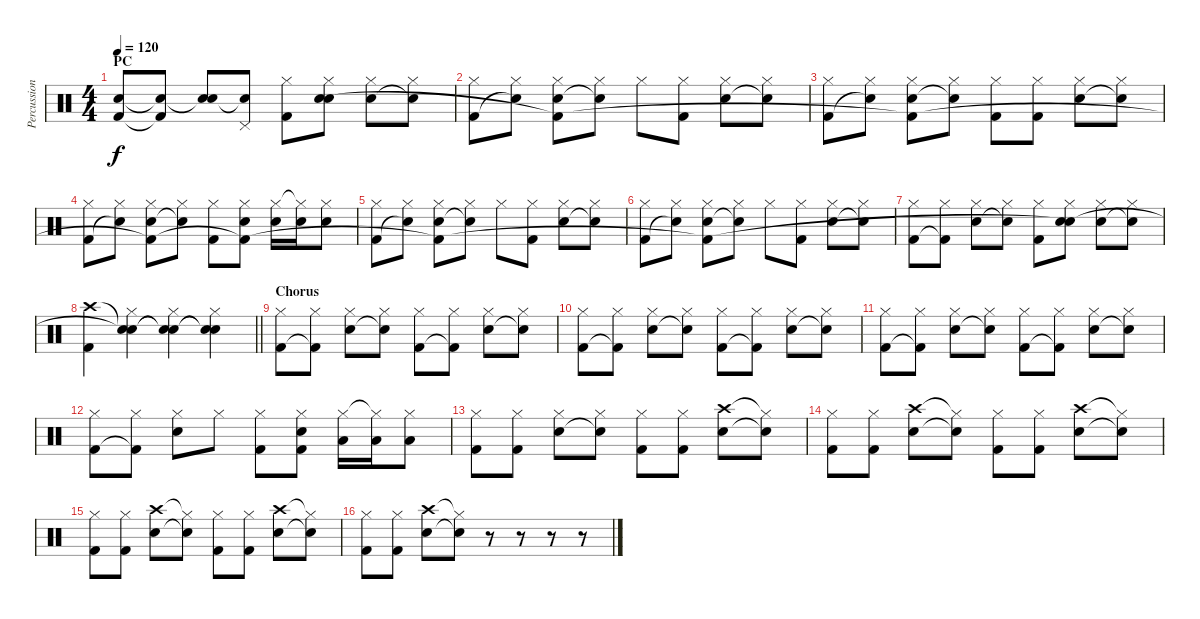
\track ("Percussion" "Percussion") {instrument percussion}
\staff {score}
\articulation defaults
\ts (4 4)
\section ("" "PC")
\tempo 120
\clef neutral
\ks c
("Snare (hit)"{t} "Kick (hit) 2").8{dy f} ("Snare (hit)"{t} "Kick (hit) 2"{t}).8 ("Snare (hit)"{t} "Electric Snare (hit)").8 ("Pedal Hi-Hat (hit)" "Electric Snare (hit)"{t}).8 ("Hi-Hat (closed)" "Kick (hit) 2").8 ("Hi-Hat (closed)" "Electric Snare (hit)" "Snare (hit)"{t}).8 ("Hi-Hat (closed)" "Electric Snare (hit)").8 ("Hi-Hat (closed)" "Electric Snare (hit)"{t}).8 |
("Hi-Hat (closed)" "Kick (hit) 2").8 ("Hi-Hat (closed)" "Snare (hit)"{t}).8 ("Hi-Hat (closed)" "Electric Snare (hit)" "Kick (hit) 2"{t}).8 ("Hi-Hat (closed)" "Electric Snare (hit)"{t}).8 "Hi-Hat (closed)".8 ("Hi-Hat (closed)" "Kick (hit) 2").8 ("Hi-Hat (closed)" "Electric Snare (hit)").8 ("Hi-Hat (closed)" "Electric Snare (hit)"{t}).8 |
("Hi-Hat (closed)" "Kick (hit) 2").8 ("Hi-Hat (closed)" "Snare (hit)"{t}).8 ("Hi-Hat (closed)" "Electric Snare (hit)" "Kick (hit) 2"{t}).8 ("Hi-Hat (closed)" "Electric Snare (hit)"{t}).8 ("Hi-Hat (closed)" "Kick (hit) 2").8 ("Hi-Hat (closed)" "Kick (hit) 2").8 ("Hi-Hat (closed)" "Electric Snare (hit)").8 ("Hi-Hat (closed)" "Electric Snare (hit)"{t}).8 |
("Hi-Hat (closed)" "Kick (hit) 2").8 ("Hi-Hat (closed)" "Snare (hit)"{t}).8 ("Hi-Hat (closed)" "Electric Snare (hit)" "Kick (hit) 2"{t}).8 ("Hi-Hat (closed)" "Electric Snare (hit)"{t}).8 ("Hi-Hat (closed)" "Kick (hit) 2").8 ("Hi-Hat (closed)" "Electric Snare (hit)" "Kick (hit) 2"{t}).8 ("Hi-Hat (closed)" "Electric Snare (hit)").16 ("Hi-Hat (closed)"{t} "Electric Snare (hit)").16 ("Hi-Hat (closed)" "Electric Snare (hit)").8 |
("Hi-Hat (closed)" "Kick (hit) 2").8 ("Hi-Hat (closed)" "Snare (hit)"{t}).8 ("Hi-Hat (closed)" "Electric Snare (hit)" "Kick (hit) 2"{t}).8 ("Hi-Hat (closed)" "Electric Snare (hit)"{t}).8 "Hi-Hat (closed)".8 ("Hi-Hat (closed)" "Kick (hit) 2").8 ("Hi-Hat (closed)" "Electric Snare (hit)").8 ("Hi-Hat (closed)" "Electric Snare (hit)"{t}).8 |
("Hi-Hat (closed)" "Kick (hit) 2").8 ("Hi-Hat (closed)" "Snare (hit)"{t}).8 ("Hi-Hat (closed)" "Electric Snare (hit)" "Kick (hit) 2"{t}).8 ("Hi-Hat (closed)" "Electric Snare (hit)"{t}).8 "Hi-Hat (closed)".8 ("Hi-Hat (closed)" "Kick (hit) 2").8 ("Hi-Hat (closed)" "Electric Snare (hit)").8 ("Hi-Hat (closed)" "Electric Snare (hit)"{t}).8 |
("Hi-Hat (closed)" "Kick (hit) 2").8 ("Hi-Hat (closed)" "Kick (hit) 2"{t}).8 ("Hi-Hat (closed)" "Electric Snare (hit)").8 ("Hi-Hat (closed)" "Electric Snare (hit)"{t}).8 ("Hi-Hat (closed)" "Kick (hit) 2").8 ("Hi-Hat (closed)" "Electric Snare (hit)" "Snare (hit)"{t}).8 ("Hi-Hat (closed)" "Electric Snare (hit)").8 ("Hi-Hat (closed)" "Electric Snare (hit)"{t}).8 |
\barLineRight lightlight
("Crash high (hit)" "Kick (hit) 2").4 ("Snare (hit)"{t} "Hi-Hat (closed)" "Snare (hit)"{t}).4 ("Snare (hit)"{t} "Hi-Hat (closed)" "Snare (hit)"{t}).4 ("Snare (hit)"{t} "Hi-Hat (closed)" "Snare (hit)"{t}).4 |
\section ("" "Chorus")
("Hi-Hat (closed)" "Kick (hit) 2").8 ("Hi-Hat (closed)" "Kick (hit) 2"{t}).8 ("Hi-Hat (closed)" "Electric Snare (hit)").8 ("Hi-Hat (closed)" "Electric Snare (hit)"{t}).8 ("Hi-Hat (closed)" "Kick (hit) 2").8 ("Hi-Hat (closed)" "Kick (hit) 2"{t}).8 ("Hi-Hat (closed)" "Electric Snare (hit)").8 ("Hi-Hat (closed)" "Electric Snare (hit)"{t}).8 |
("Hi-Hat (closed)" "Kick (hit) 2").8 ("Hi-Hat (closed)" "Kick (hit) 2"{t}).8 ("Hi-Hat (closed)" "Electric Snare (hit)").8 ("Hi-Hat (closed)" "Electric Snare (hit)"{t}).8 ("Hi-Hat (closed)" "Kick (hit) 2").8 ("Hi-Hat (closed)" "Kick (hit) 2"{t}).8 ("Hi-Hat (closed)" "Electric Snare (hit)").8 ("Hi-Hat (closed)" "Electric Snare (hit)"{t}).8 |
("Hi-Hat (closed)" "Kick (hit) 2").8 ("Hi-Hat (closed)" "Kick (hit) 2"{t}).8 ("Hi-Hat (closed)" "Electric Snare (hit)").8 ("Hi-Hat (closed)" "Electric Snare (hit)"{t}).8 ("Hi-Hat (closed)" "Kick (hit) 2").8 ("Hi-Hat (closed)" "Kick (hit) 2"{t}).8 ("Hi-Hat (closed)" "Electric Snare (hit)").8 ("Hi-Hat (closed)" "Electric Snare (hit)"{t}).8 |
("Hi-Hat (closed)" "Kick (hit) 2").8 ("Hi-Hat (closed)" "Kick (hit) 2"{t}).8 ("Hi-Hat (closed)" "Electric Snare (hit)").8 "Hi-Hat (closed)".8 ("Hi-Hat (closed)" "Kick (hit) 2").8 ("Hi-Hat (closed)" "Electric Snare (hit)" "Kick (hit) 2").8 ("Hi-Hat (closed)" "Low Floor Tom (hit)").16 ("Hi-Hat (closed)"{t} "Low Floor Tom (hit)").16 ("Hi-Hat (closed)" "Low Floor Tom (hit)").8 |
("Hi-Hat (closed)" "Kick (hit) 2").8 ("Hi-Hat (closed)" "Kick (hit) 2").8 ("Hi-Hat (closed)" "Electric Snare (hit)").8 ("Hi-Hat (closed)" "Electric Snare (hit)"{t}).8 ("Hi-Hat (closed)" "Kick (hit) 2").8 ("Hi-Hat (closed)" "Kick (hit) 2").8 ("Crash high (hit)" "Electric Snare (hit)").8 ("Hi-Hat (closed)"{t} "Electric Snare (hit)"{t}).8 |
("Hi-Hat (closed)" "Kick (hit) 2").8 ("Hi-Hat (closed)" "Kick (hit) 2").8 ("Crash high (hit)" "Electric Snare (hit)").8 ("Hi-Hat (closed)"{t} "Electric Snare (hit)"{t}).8 ("Hi-Hat (closed)" "Kick (hit) 2").8 ("Hi-Hat (closed)" "Kick (hit) 2").8 ("Crash high (hit)" "Electric Snare (hit)").8 ("Hi-Hat (closed)"{t} "Electric Snare (hit)"{t}).8 |
("Hi-Hat (closed)" "Kick (hit) 2").8 ("Hi-Hat (closed)" "Kick (hit) 2").8 ("Crash high (hit)" "Electric Snare (hit)").8 ("Hi-Hat (closed)"{t} "Electric Snare (hit)"{t}).8 ("Hi-Hat (closed)" "Kick (hit) 2").8 ("Hi-Hat (closed)" "Kick (hit) 2").8 ("Crash high (hit)" "Electric Snare (hit)").8 ("Hi-Hat (closed)"{t} "Electric Snare (hit)"{t}).8 |
("Hi-Hat (closed)" "Kick (hit) 2").8 ("Hi-Hat (closed)" "Kick (hit) 2").8 ("Crash high (hit)" "Electric Snare (hit)").8 ("Hi-Hat (closed)"{t} "Electric Snare (hit)"{t}).8 r.8 r.8 r.8 r.8
